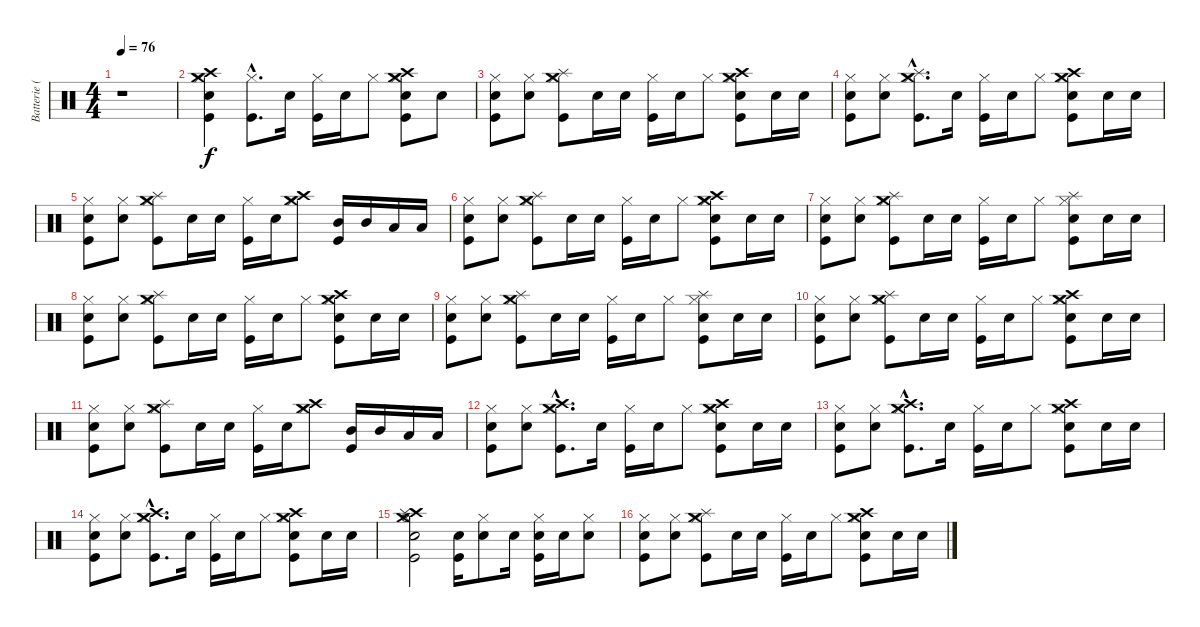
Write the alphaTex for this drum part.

\track ("Batterie (Caroline Corr)" "Batterie (") {instrument percussion}
\staff {score}
\articulation defaults
\ts (4 4)
\tempo 76
\clef neutral
\ks c
r.1{dy f} |
("Hi-Hat (closed)" "Snare (hit) 2" "Crash high (hit)" "Crash medium (hit)" "Kick (hit)").4 ("Hi-Hat (closed)"{hac} "Kick (hit)"{hac}).8{d} "Snare (hit) 2".16 ("Hi-Hat (closed)" "Kick (hit)").16 "Snare (hit) 2".16 "Hi-Hat (closed)".8 ("Hi-Hat (closed)" "Snare (hit) 2" "Crash high (hit)" "Crash medium (hit)" "Kick (hit)").8 "Snare (hit) 2".8 |
("Hi-Hat (closed)" "Snare (hit) 2" "Kick (hit)").8 ("Hi-Hat (closed)" "Snare (hit) 2").8 ("Hi-Hat (closed)" "Splash (hit)" "Crash medium (hit)" "Kick (hit)").8 "Snare (hit) 2".16 "Snare (hit) 2".16 ("Hi-Hat (closed)" "Kick (hit)").16 "Snare (hit) 2".16 "Hi-Hat (closed)".8 ("Hi-Hat (closed)" "Snare (hit) 2" "Crash high (hit)" "Crash medium (hit)" "Kick (hit)").8 "Snare (hit) 2".16 "Snare (hit) 2".16 |
("Hi-Hat (closed)" "Snare (hit) 2" "Kick (hit)").8 ("Hi-Hat (closed)" "Snare (hit) 2").8 ("Hi-Hat (closed)"{hac} "Splash (hit)"{hac} "Crash medium (hit)"{hac} "Kick (hit)"{hac}).8{d} "Snare (hit) 2".16 ("Hi-Hat (closed)" "Kick (hit)").16 "Snare (hit) 2".16 "Hi-Hat (closed)".8 ("Hi-Hat (closed)" "Snare (hit) 2" "Crash high (hit)" "Crash medium (hit)" "Kick (hit)").8 "Snare (hit) 2".16 "Snare (hit) 2".16 |
("Hi-Hat (closed)" "Snare (hit) 2" "Kick (hit)").8 ("Hi-Hat (closed)" "Snare (hit) 2").8 ("Hi-Hat (closed)" "Splash (hit)" "Crash medium (hit)" "Kick (hit)").8 "Snare (hit) 2".16 "Snare (hit) 2".16 ("Hi-Hat (closed)" "Kick (hit)").16 "Snare (hit) 2".16 ("Hi-Hat (closed)" "Crash medium (hit)" "Crash high (hit)").8 ("Mid Tom (hit)" "Kick (hit)").16 "Mid Tom (hit)".16 "Low Tom (hit)".16 "Low Tom (hit)".16 |
("Hi-Hat (closed)" "Snare (hit) 2" "Kick (hit)").8 ("Hi-Hat (closed)" "Snare (hit) 2").8 ("Hi-Hat (closed)" "Splash (hit)" "Crash medium (hit)" "Kick (hit)").8 "Snare (hit) 2".16 "Snare (hit) 2".16 ("Hi-Hat (closed)" "Kick (hit)").16 "Snare (hit) 2".16 "Hi-Hat (closed)".8 ("Hi-Hat (closed)" "Snare (hit) 2" "Crash high (hit)" "Crash medium (hit)" "Kick (hit)").8 "Snare (hit) 2".16 "Snare (hit) 2".16 |
("Hi-Hat (closed)" "Snare (hit) 2" "Kick (hit)").8 ("Hi-Hat (closed)" "Snare (hit) 2").8 ("Hi-Hat (closed)" "Splash (hit)" "Crash medium (hit)" "Kick (hit)").8 "Snare (hit) 2".16 "Snare (hit) 2".16 ("Hi-Hat (closed)" "Kick (hit)").16 "Snare (hit) 2".16 "Hi-Hat (closed)".8 ("Hi-Hat (closed)" "Snare (hit) 2" "Splash (hit)" "Kick (hit)").8 "Snare (hit) 2".16 "Snare (hit) 2".16 |
("Hi-Hat (closed)" "Snare (hit) 2" "Kick (hit)").8 ("Hi-Hat (closed)" "Snare (hit) 2").8 ("Hi-Hat (closed)" "Splash (hit)" "Crash medium (hit)" "Kick (hit)").8 "Snare (hit) 2".16 "Snare (hit) 2".16 ("Hi-Hat (closed)" "Kick (hit)").16 "Snare (hit) 2".16 "Hi-Hat (closed)".8 ("Hi-Hat (closed)" "Snare (hit) 2" "Crash high (hit)" "Crash medium (hit)" "Kick (hit)").8 "Snare (hit) 2".16 "Snare (hit) 2".16 |
("Hi-Hat (closed)" "Snare (hit) 2" "Kick (hit)").8 ("Hi-Hat (closed)" "Snare (hit) 2").8 ("Hi-Hat (closed)" "Splash (hit)" "Crash medium (hit)" "Kick (hit)").8 "Snare (hit) 2".16 "Snare (hit) 2".16 ("Hi-Hat (closed)" "Kick (hit)").16 "Snare (hit) 2".16 "Hi-Hat (closed)".8 ("Hi-Hat (closed)" "Snare (hit) 2" "Splash (hit)" "Kick (hit)").8 "Snare (hit) 2".16 "Snare (hit) 2".16 |
("Hi-Hat (closed)" "Snare (hit) 2" "Kick (hit)").8 ("Hi-Hat (closed)" "Snare (hit) 2").8 ("Hi-Hat (closed)" "Splash (hit)" "Crash medium (hit)" "Kick (hit)").8 "Snare (hit) 2".16 "Snare (hit) 2".16 ("Hi-Hat (closed)" "Kick (hit)").16 "Snare (hit) 2".16 "Hi-Hat (closed)".8 ("Hi-Hat (closed)" "Snare (hit) 2" "Crash high (hit)" "Crash medium (hit)" "Kick (hit)").8 "Snare (hit) 2".16 "Snare (hit) 2".16 |
("Hi-Hat (closed)" "Snare (hit) 2" "Kick (hit)").8 ("Hi-Hat (closed)" "Snare (hit) 2").8 ("Hi-Hat (closed)" "Splash (hit)" "Crash medium (hit)" "Kick (hit)").8 "Snare (hit) 2".16 "Snare (hit) 2".16 ("Hi-Hat (closed)" "Kick (hit)").16 "Snare (hit) 2".16 ("Hi-Hat (closed)" "Crash medium (hit)" "Crash high (hit)").8 ("Mid Tom (hit)" "Kick (hit)").16 "Mid Tom (hit)".16 "Low Tom (hit)".16 "Low Tom (hit)".16 |
("Hi-Hat (closed)" "Snare (hit) 2" "Kick (hit)").8 ("Hi-Hat (closed)" "Snare (hit) 2").8 ("Hi-Hat (closed)"{hac} "Crash high (hit)"{hac} "Crash medium (hit)"{hac} "Kick (hit)"{hac}).8{d} "Snare (hit) 2".16 ("Hi-Hat (closed)" "Kick (hit)").16 "Snare (hit) 2".16 "Hi-Hat (closed)".8 ("Hi-Hat (closed)" "Snare (hit) 2" "Crash high (hit)" "Crash medium (hit)" "Kick (hit)").8 "Snare (hit) 2".16 "Snare (hit) 2".16 |
("Hi-Hat (closed)" "Snare (hit) 2" "Kick (hit)").8 ("Hi-Hat (closed)" "Snare (hit) 2").8 ("Hi-Hat (closed)"{hac} "Crash high (hit)"{hac} "Crash medium (hit)"{hac} "Kick (hit)"{hac}).8{d} "Snare (hit) 2".16 ("Hi-Hat (closed)" "Kick (hit)").16 "Snare (hit) 2".16 "Hi-Hat (closed)".8 ("Hi-Hat (closed)" "Snare (hit) 2" "Crash high (hit)" "Crash medium (hit)" "Kick (hit)").8 "Snare (hit) 2".16 "Snare (hit) 2".16 |
("Hi-Hat (closed)" "Snare (hit) 2" "Kick (hit)").8 ("Hi-Hat (closed)" "Snare (hit) 2").8 ("Hi-Hat (closed)"{hac} "Crash high (hit)"{hac} "Crash medium (hit)"{hac} "Kick (hit)"{hac}).8{d} "Snare (hit) 2".16 ("Hi-Hat (closed)" "Kick (hit)").16 "Snare (hit) 2".16 "Hi-Hat (closed)".8 ("Hi-Hat (closed)" "Snare (hit) 2" "Crash high (hit)" "Crash medium (hit)" "Kick (hit)").8 "Snare (hit) 2".16 "Snare (hit) 2".16 |
("Hi-Hat (open)" "Crash medium (hit)" "Crash high (hit)" "Snare (hit) 2" "Splash (hit)" "Kick (hit)").2 ("Snare (hit) 2" "Kick (hit)").16 ("Hi-Hat (closed)" "Snare (hit) 2").8 "Snare (hit) 2".16 ("Hi-Hat (closed)" "Snare (hit) 2" "Kick (hit)").16 "Snare (hit) 2".16 ("Hi-Hat (closed)" "Snare (hit) 2").8 |
("Hi-Hat (closed)" "Snare (hit) 2" "Kick (hit)").8 ("Hi-Hat (closed)" "Snare (hit) 2").8 ("Hi-Hat (closed)" "Splash (hit)" "Crash medium (hit)" "Kick (hit)").8 "Snare (hit) 2".16 "Snare (hit) 2".16 ("Hi-Hat (closed)" "Kick (hit)").16 "Snare (hit) 2".16 "Hi-Hat (closed)".8 ("Hi-Hat (closed)" "Snare (hit) 2" "Crash high (hit)" "Crash medium (hit)" "Kick (hit)").8 "Snare (hit) 2".16 "Snare (hit) 2".16
